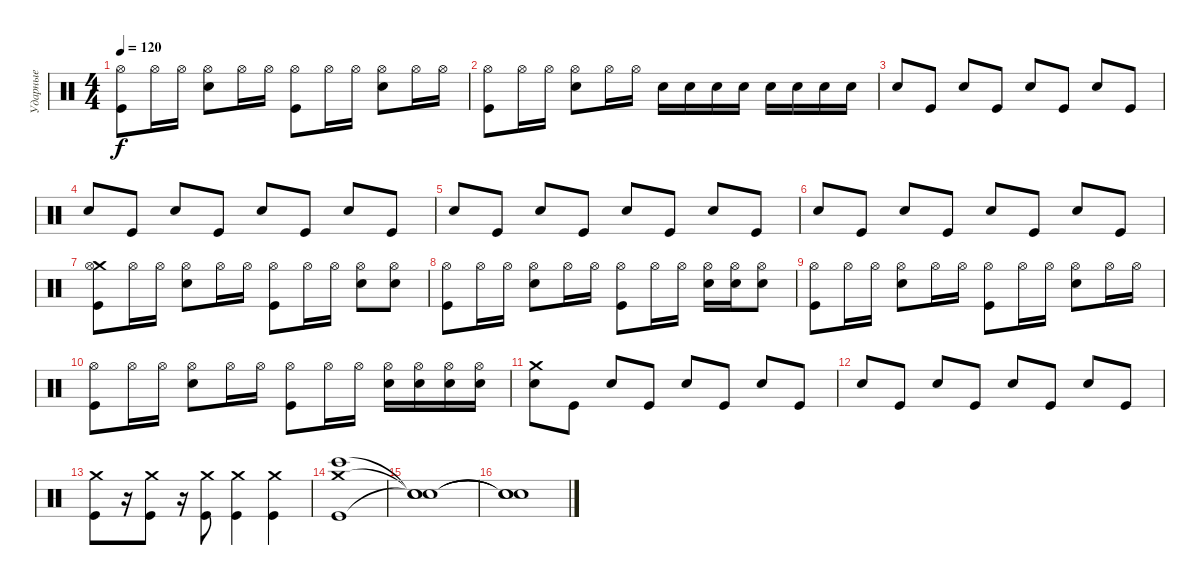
\track ("Ударные" "Ударные") {instrument percussion}
\staff {score}
\articulation defaults
\ts (4 4)
\tempo 120
\clef neutral
\ks c
("Hi-Hat (open)" "Kick (hit)").8{dy f} "Hi-Hat (open)".16 "Hi-Hat (open)".16 ("Hi-Hat (open)" "Snare (hit) 2").8 "Hi-Hat (open)".16 "Hi-Hat (open)".16 ("Hi-Hat (open)" "Kick (hit)").8 "Hi-Hat (open)".16 "Hi-Hat (open)".16 ("Snare (hit) 2" "Hi-Hat (open)").8 "Hi-Hat (open)".16 "Hi-Hat (open)".16 |
("Hi-Hat (open)" "Kick (hit)").8 "Hi-Hat (open)".16 "Hi-Hat (open)".16 ("Hi-Hat (open)" "Snare (hit) 2").8 "Hi-Hat (open)".16 "Hi-Hat (open)".16 "Snare (hit) 2".16 "Snare (hit) 2".16 "Snare (hit) 2".16 "Snare (hit) 2".16 "Snare (hit) 2".16 "Snare (hit) 2".16 "Snare (hit) 2".16 "Snare (hit) 2".16 |
"Snare (hit) 2".8 "Kick (hit)".8 "Snare (hit) 2".8 "Kick (hit)".8 "Snare (hit) 2".8 "Kick (hit)".8 "Snare (hit) 2".8 "Kick (hit)".8 |
"Snare (hit) 2".8 "Kick (hit)".8 "Snare (hit) 2".8 "Kick (hit)".8 "Snare (hit) 2".8 "Kick (hit)".8 "Snare (hit) 2".8 "Kick (hit)".8 |
"Snare (hit) 2".8 "Kick (hit)".8 "Snare (hit) 2".8 "Kick (hit)".8 "Snare (hit) 2".8 "Kick (hit)".8 "Snare (hit) 2".8 "Kick (hit)".8 |
"Snare (hit) 2".8 "Kick (hit)".8 "Snare (hit) 2".8 "Kick (hit)".8 "Snare (hit) 2".8 "Kick (hit)".8 "Snare (hit) 2".8 "Kick (hit)".8 |
("Crash medium (hit)" "Hi-Hat (open)" "Kick (hit)").8 "Hi-Hat (open)".16 "Hi-Hat (open)".16 ("Hi-Hat (open)" "Snare (hit) 2").8 "Hi-Hat (open)".16 "Hi-Hat (open)".16 ("Hi-Hat (open)" "Kick (hit)").8 "Hi-Hat (open)".16 "Hi-Hat (open)".16 ("Snare (hit) 2" "Hi-Hat (open)").8 ("Snare (hit) 2" "Hi-Hat (open)").8 |
("Hi-Hat (open)" "Kick (hit)").8 "Hi-Hat (open)".16 "Hi-Hat (open)".16 ("Hi-Hat (open)" "Snare (hit) 2").8 "Hi-Hat (open)".16 "Hi-Hat (open)".16 ("Hi-Hat (open)" "Kick (hit)").8 "Hi-Hat (open)".16 "Hi-Hat (open)".16 ("Snare (hit) 2" "Hi-Hat (open)").16 ("Snare (hit) 2" "Hi-Hat (open)").16 ("Snare (hit) 2" "Hi-Hat (open)").8 |
("Hi-Hat (open)" "Kick (hit)").8 "Hi-Hat (open)".16 "Hi-Hat (open)".16 ("Hi-Hat (open)" "Snare (hit) 2").8 "Hi-Hat (open)".16 "Hi-Hat (open)".16 ("Hi-Hat (open)" "Kick (hit)").8 "Hi-Hat (open)".16 "Hi-Hat (open)".16 ("Snare (hit) 2" "Hi-Hat (open)").8 "Hi-Hat (open)".16 "Hi-Hat (open)".16 |
("Hi-Hat (open)" "Kick (hit)").8 "Hi-Hat (open)".16 "Hi-Hat (open)".16 ("Hi-Hat (open)" "Snare (hit) 2").8 "Hi-Hat (open)".16 "Hi-Hat (open)".16 ("Hi-Hat (open)" "Kick (hit)").8 "Hi-Hat (open)".16 "Hi-Hat (open)".16 ("Snare (hit) 2" "Hi-Hat (open)").16 ("Snare (hit) 2" "Hi-Hat (open)").16 ("Snare (hit) 2" "Hi-Hat (open)").16 ("Snare (hit) 2" "Hi-Hat (open)").16 |
("Crash medium (hit)" "Snare (hit) 2").8 "Kick (hit)".8 "Snare (hit) 2".8 "Kick (hit)".8 "Snare (hit) 2".8 "Kick (hit)".8 "Snare (hit) 2".8 "Kick (hit)".8 |
"Snare (hit) 2".8 "Kick (hit)".8 "Snare (hit) 2".8 "Kick (hit)".8 "Snare (hit) 2".8 "Kick (hit)".8 "Snare (hit) 2".8 "Kick (hit)".8 |
("Crash medium (hit)" "Kick (hit)").8 r.16 ("Crash medium (hit)" "Kick (hit)").8 r.16 ("Crash medium (hit)" "Kick (hit)").8 ("Crash medium (hit)" "Kick (hit)").4 ("Crash medium (hit)" "Kick (hit)").4 |
("Kick (hit)" "Crash medium (hit)" "Bongo High (hit)").1 |
("Snare (hit)"{t} "Snare (hit)"{t} "Snare (hit)"{t}).1 |
("Snare (hit)"{t} "Snare (hit)"{t} "Snare (hit)"{t}).1
